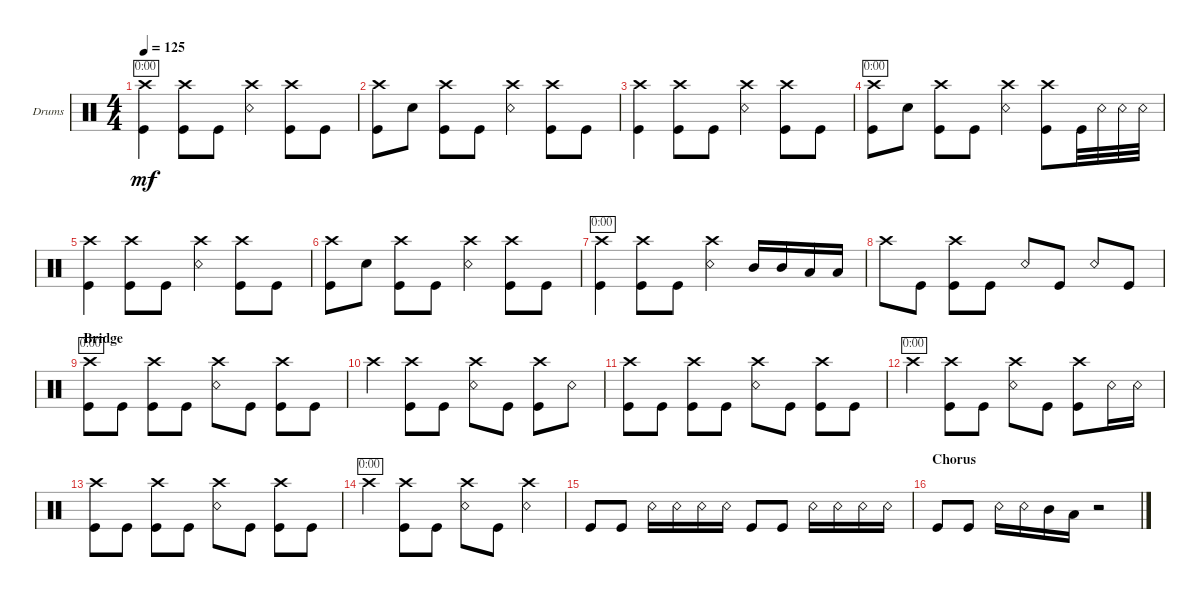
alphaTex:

\defaultSystemsLayout 4
\bracketExtendMode groupsimilarinstruments
\firstSystemTrackNameOrientation horizontal
\otherSystemsTrackNameOrientation horizontal
\track ("Drumkit" "Drums") {instrument percussion}
\staff {score}
\articulation defaults
\ts (4 4)
\tempo 125
\clef neutral
\scale
0.333333
\ks c
("Crash high (hit)" "Kick (hit)").4{dy mf timer} ("Kick (hit)" "Crash high (hit)").8 "Kick (hit)".8 ("Crash high (hit)" "Snare (rim shot)").4 ("Crash high (hit)" "Kick (hit)").8 "Kick (hit)".8 |
\scale
0.333333 ("Kick (hit)" "Crash high (hit)").8 "Snare (hit) 2".8 ("Kick (hit)" "Crash high (hit)").8 "Kick (hit)".8 ("Crash high (hit)" "Snare (rim shot)").4 ("Crash high (hit)" "Kick (hit)").8 "Kick (hit)".8 |
\scale
0.333333 ("Crash high (hit)" "Kick (hit)").4 ("Kick (hit)" "Crash high (hit)").8 "Kick (hit)".8 ("Crash high (hit)" "Snare (rim shot)").4 ("Crash high (hit)" "Kick (hit)").8 "Kick (hit)".8 |
\scale
0.333333 ("Kick (hit)" "Crash high (hit)").8{timer} "Snare (hit) 2".8 ("Kick (hit)" "Crash high (hit)").8 "Kick (hit)".8 ("Crash high (hit)" "Snare (rim shot)").4 ("Crash high (hit)" "Kick (hit)").8 "Kick (hit)".32 "Snare (rim shot)".32 "Snare (rim shot)".32 "Snare (rim shot)".32 |
\scale
0.333333 ("Crash high (hit)" "Kick (hit)").4 ("Kick (hit)" "Crash high (hit)").8 "Kick (hit)".8 ("Crash high (hit)" "Snare (rim shot)").4 ("Crash high (hit)" "Kick (hit)").8 "Kick (hit)".8 |
\scale
0.333333 ("Kick (hit)" "Crash high (hit)").8 "Snare (hit) 2".8 ("Kick (hit)" "Crash high (hit)").8 "Kick (hit)".8 ("Crash high (hit)" "Snare (rim shot)").4 ("Crash high (hit)" "Kick (hit)").8 "Kick (hit)".8 |
\scale
0.333333 ("Crash high (hit)" "Kick (hit)").4{timer} ("Kick (hit)" "Crash high (hit)").8 "Kick (hit)".8 ("Crash high (hit)" "Snare (rim shot)").4 "Mid Tom (hit)".16 "Mid Tom (hit)".16 "Low Tom (hit)".16 "Low Tom (hit)".16 |
\scale
0.333333 "Crash high (hit)".8 "Kick (hit)".8 ("Kick (hit)" "Crash high (hit)").8 "Kick (hit)".8 "Snare (rim shot)".8 "Kick (hit)".8 "Snare (rim shot)".8 "Kick (hit)".8 |
\section ("" "Bridge")
\scale
0.333333 ("Kick (hit)" "Crash high (hit)").8{timer} "Kick (hit)".8 ("Kick (hit)" "Crash high (hit)").8 "Kick (hit)".8 ("Crash high (hit)" "Snare (rim shot)").8 "Kick (hit)".8 ("Kick (hit)" "Crash high (hit)").8 "Kick (hit)".8 |
\scale
0.333333 "Crash high (hit)".4 ("Crash high (hit)" "Kick (hit)").8 "Kick (hit)".8 ("Snare (rim shot)" "Crash high (hit)").8 "Kick (hit)".8 ("Kick (hit)" "Crash high (hit)").8 "Snare (rim shot)".8 |
\scale
0.333333 ("Kick (hit)" "Crash high (hit)").8 "Kick (hit)".8 ("Kick (hit)" "Crash high (hit)").8 "Kick (hit)".8 ("Crash high (hit)" "Snare (rim shot)").8 "Kick (hit)".8 ("Kick (hit)" "Crash high (hit)").8 "Kick (hit)".8 |
\scale
0.333333 "Crash high (hit)".4{timer} ("Crash high (hit)" "Kick (hit)").8 "Kick (hit)".8 ("Snare (rim shot)" "Crash high (hit)").8 "Kick (hit)".8 ("Kick (hit)" "Crash high (hit)").8 "Snare (rim shot)".16 "Snare (rim shot)".16 |
\scale
0.333333 ("Kick (hit)" "Crash high (hit)").8 "Kick (hit)".8 ("Kick (hit)" "Crash high (hit)").8 "Kick (hit)".8 ("Crash high (hit)" "Snare (rim shot)").8 "Kick (hit)".8 ("Kick (hit)" "Crash high (hit)").8 "Kick (hit)".8 |
\scale
0.333333 "Crash high (hit)".4{timer} ("Crash high (hit)" "Kick (hit)").8 "Kick (hit)".8 ("Snare (rim shot)" "Crash high (hit)").8 "Kick (hit)".8 ("Crash high (hit)" "Snare (rim shot)").4 |
\scale
0.333333 "Kick (hit)".8 "Kick (hit)".8 "Snare (rim shot)".16 "Snare (rim shot)".16 "Snare (rim shot)".16 "Snare (rim shot)".16 "Kick (hit)".8 "Kick (hit)".8 "Snare (rim shot)".16 "Snare (rim shot)".16 "Snare (rim shot)".16 "Snare (rim shot)".16 |
\section ("" "Chorus")
\scale
0.333333 "Kick (hit)".8 "Kick (hit)".8 "Snare (rim shot)".16 "Snare (rim shot)".16 "Mid Tom (hit)".16 "Low Tom (hit)".16 r.2
